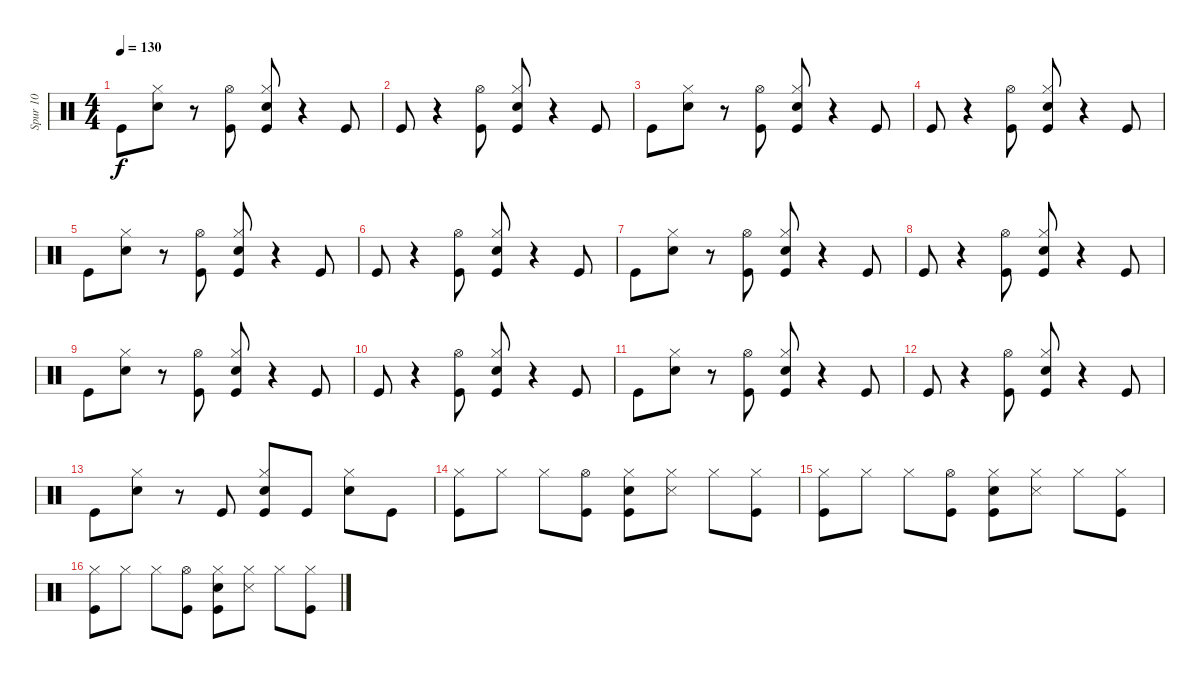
\track ("Spur 10" "Spur 10") {instrument percussion}
\staff {score}
\articulation defaults
\ts (4 4)
\tempo 130
\clef neutral
\ks c "Kick (hit)".8{dy f}
("Hi-Hat (closed)" "Snare (hit) 2").8 r.8 ("Kick (hit)" "Hi-Hat (open)").8 ("Hi-Hat (closed)" "Snare (hit) 2" "Kick (hit)").8 r.4 "Kick (hit)".8 |
"Kick (hit)".8 r.4 ("Hi-Hat (open)" "Kick (hit)").8 ("Hi-Hat (closed)" "Snare (hit) 2" "Kick (hit)").8 r.4 "Kick (hit)".8 |
"Kick (hit)".8 ("Snare (hit) 2" "Hi-Hat (closed)").8 r.8 ("Kick (hit)" "Hi-Hat (open)").8 ("Hi-Hat (closed)" "Snare (hit) 2" "Kick (hit)").8 r.4 "Kick (hit)".8 |
"Kick (hit)".8 r.4 ("Hi-Hat (open)" "Kick (hit)").8 ("Hi-Hat (closed)" "Snare (hit) 2" "Kick (hit)").8 r.4 "Kick (hit)".8 |
"Kick (hit)".8 ("Snare (hit) 2" "Hi-Hat (closed)").8 r.8 ("Kick (hit)" "Hi-Hat (open)").8 ("Hi-Hat (closed)" "Snare (hit) 2" "Kick (hit)").8 r.4 "Kick (hit)".8 |
"Kick (hit)".8 r.4 ("Hi-Hat (open)" "Kick (hit)").8 ("Hi-Hat (closed)" "Snare (hit) 2" "Kick (hit)").8 r.4 "Kick (hit)".8 |
"Kick (hit)".8 ("Snare (hit) 2" "Hi-Hat (closed)").8 r.8 ("Kick (hit)" "Hi-Hat (open)").8 ("Hi-Hat (closed)" "Snare (hit) 2" "Kick (hit)").8 r.4 "Kick (hit)".8 |
"Kick (hit)".8 r.4 ("Hi-Hat (open)" "Kick (hit)").8 ("Hi-Hat (closed)" "Snare (hit) 2" "Kick (hit)").8 r.4 "Kick (hit)".8 |
"Kick (hit)".8 ("Snare (hit) 2" "Hi-Hat (closed)").8 r.8 ("Kick (hit)" "Hi-Hat (open)").8 ("Hi-Hat (closed)" "Snare (hit) 2" "Kick (hit)").8 r.4 "Kick (hit)".8 |
"Kick (hit)".8 r.4 ("Hi-Hat (open)" "Kick (hit)").8 ("Hi-Hat (closed)" "Snare (hit) 2" "Kick (hit)").8 r.4 "Kick (hit)".8 |
"Kick (hit)".8 ("Snare (hit) 2" "Hi-Hat (closed)").8 r.8 ("Kick (hit)" "Hi-Hat (open)").8 ("Hi-Hat (closed)" "Snare (hit) 2" "Kick (hit)").8 r.4 "Kick (hit)".8 |
"Kick (hit)".8 r.4 ("Hi-Hat (open)" "Kick (hit)").8 ("Hi-Hat (closed)" "Snare (hit) 2" "Kick (hit)").8 r.4 "Kick (hit)".8 |
"Kick (hit)".8 ("Snare (hit) 2" "Hi-Hat (closed)").8 r.8 "Kick (hit)".8 ("Hi-Hat (closed)" "Kick (hit)" "Snare (hit) 2").8 "Kick (hit)".8 ("Hi-Hat (closed)" "Snare (hit) 2").8 "Kick (hit)".8 |
("Kick (hit)" "Hi-Hat (closed)").8 "Hi-Hat (closed)".8 "Hi-Hat (closed)".8 ("Kick (hit)" "Hi-Hat (open)").8 ("Snare (hit) 2" "Kick (hit)" "Hi-Hat (closed)").8 ("Snare (side stick) 3" "Hi-Hat (closed)").8 "Hi-Hat (closed)".8 ("Kick (hit)" "Hi-Hat (closed)").8 |
("Kick (hit)" "Hi-Hat (closed)").8 "Hi-Hat (closed)".8 "Hi-Hat (closed)".8 ("Kick (hit)" "Hi-Hat (open)").8 ("Snare (hit) 2" "Kick (hit)" "Hi-Hat (closed)").8 ("Snare (side stick) 3" "Hi-Hat (closed)").8 "Hi-Hat (closed)".8 ("Kick (hit)" "Hi-Hat (closed)").8 |
("Kick (hit)" "Hi-Hat (closed)").8 "Hi-Hat (closed)".8 "Hi-Hat (closed)".8 ("Kick (hit)" "Hi-Hat (open)").8 ("Snare (hit) 2" "Kick (hit)" "Hi-Hat (closed)").8 ("Snare (side stick) 3" "Hi-Hat (closed)").8 "Hi-Hat (closed)".8 ("Kick (hit)" "Hi-Hat (closed)").8
